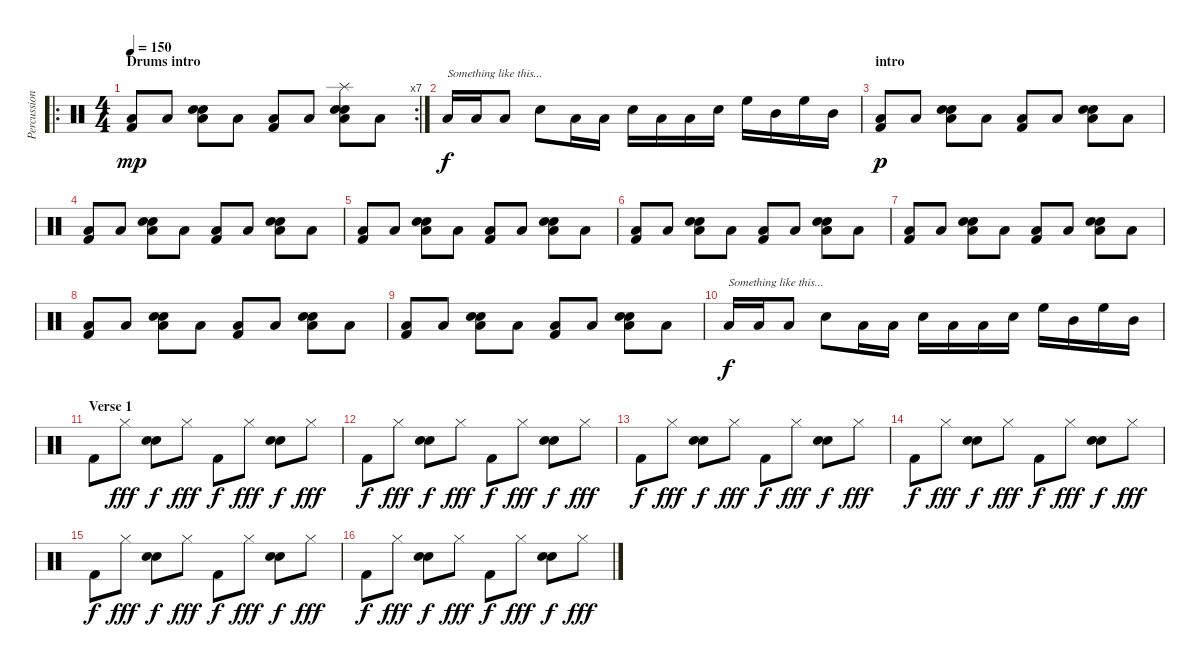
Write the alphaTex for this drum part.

\track ("Percussions" "Percussion") {instrument percussion}
\staff {score}
\articulation defaults
\ro
\rc 7
\ts (4 4)
\section ("" "Drums intro ")
\tempo 150
\clef neutral
\ks c
("Kick (hit) 2" "Low Floor Tom (hit)").8{dy mp} "Low Floor Tom (hit)".8 ("Snare (hit) 2" "Low Floor Tom (hit)" "Electric Snare (hit)").8 "Low Floor Tom (hit)".8 ("Kick (hit) 2" "Low Floor Tom (hit)").8 "Low Floor Tom (hit)".8 ("Snare (hit) 2" "Low Floor Tom (hit)" "Electric Snare (hit)" "Splash (hit)").8 "Low Floor Tom (hit)".8 |
"Low Floor Tom (hit)".16{txt "Something like this..." dy f} "Low Floor Tom (hit)".16 "Low Floor Tom (hit)".8 "Snare (hit) 2".8 "Low Floor Tom (hit)".16 "Low Floor Tom (hit)".16 "Snare (hit) 2".16 "Low Floor Tom (hit)".16 "Low Tom (hit)".16 "Snare (hit) 2".16 "High Floor Tom (hit)".16 "Mid Tom (hit)".16 "High Floor Tom (hit)".16 "Mid Tom (hit)".16 |
\section ("" "intro")
("Kick (hit) 2" "Low Floor Tom (hit)").8{dy p} "Low Floor Tom (hit)".8 ("Snare (hit) 2" "Low Floor Tom (hit)" "Electric Snare (hit)").8 "Low Floor Tom (hit)".8 ("Kick (hit) 2" "Low Floor Tom (hit)").8 "Low Floor Tom (hit)".8 ("Snare (hit) 2" "Low Floor Tom (hit)" "Electric Snare (hit)").8 "Low Floor Tom (hit)".8 |
("Kick (hit) 2" "Low Floor Tom (hit)").8 "Low Floor Tom (hit)".8 ("Snare (hit) 2" "Low Floor Tom (hit)" "Electric Snare (hit)").8 "Low Floor Tom (hit)".8 ("Kick (hit) 2" "Low Floor Tom (hit)").8 "Low Floor Tom (hit)".8 ("Snare (hit) 2" "Low Floor Tom (hit)" "Electric Snare (hit)").8 "Low Floor Tom (hit)".8 |
("Kick (hit) 2" "Low Floor Tom (hit)").8 "Low Floor Tom (hit)".8 ("Snare (hit) 2" "Low Floor Tom (hit)" "Electric Snare (hit)").8 "Low Floor Tom (hit)".8 ("Kick (hit) 2" "Low Floor Tom (hit)").8 "Low Floor Tom (hit)".8 ("Snare (hit) 2" "Low Floor Tom (hit)" "Electric Snare (hit)").8 "Low Floor Tom (hit)".8 |
("Kick (hit) 2" "Low Floor Tom (hit)").8 "Low Floor Tom (hit)".8 ("Snare (hit) 2" "Low Floor Tom (hit)" "Electric Snare (hit)").8 "Low Floor Tom (hit)".8 ("Kick (hit) 2" "Low Floor Tom (hit)").8 "Low Floor Tom (hit)".8 ("Snare (hit) 2" "Low Floor Tom (hit)" "Electric Snare (hit)").8 "Low Floor Tom (hit)".8 |
("Kick (hit) 2" "Low Floor Tom (hit)").8 "Low Floor Tom (hit)".8 ("Snare (hit) 2" "Low Floor Tom (hit)" "Electric Snare (hit)").8 "Low Floor Tom (hit)".8 ("Kick (hit) 2" "Low Floor Tom (hit)").8 "Low Floor Tom (hit)".8 ("Snare (hit) 2" "Low Floor Tom (hit)" "Electric Snare (hit)").8 "Low Floor Tom (hit)".8 |
("Kick (hit) 2" "Low Floor Tom (hit)").8 "Low Floor Tom (hit)".8 ("Snare (hit) 2" "Low Floor Tom (hit)" "Electric Snare (hit)").8 "Low Floor Tom (hit)".8 ("Kick (hit) 2" "Low Floor Tom (hit)").8 "Low Floor Tom (hit)".8 ("Snare (hit) 2" "Low Floor Tom (hit)" "Electric Snare (hit)").8 "Low Floor Tom (hit)".8 |
("Kick (hit) 2" "Low Floor Tom (hit)").8 "Low Floor Tom (hit)".8 ("Snare (hit) 2" "Low Floor Tom (hit)" "Electric Snare (hit)").8 "Low Floor Tom (hit)".8 ("Kick (hit) 2" "Low Floor Tom (hit)").8 "Low Floor Tom (hit)".8 ("Snare (hit) 2" "Low Floor Tom (hit)" "Electric Snare (hit)").8 "Low Floor Tom (hit)".8 |
"Low Floor Tom (hit)".16{txt "Something like this..." dy f} "Low Floor Tom (hit)".16 "Low Floor Tom (hit)".8 "Snare (hit) 2".8 "Low Floor Tom (hit)".16 "Low Floor Tom (hit)".16 "Snare (hit) 2".16 "Low Floor Tom (hit)".16 "Low Tom (hit)".16 "Snare (hit) 2".16 "High Floor Tom (hit)".16 "Mid Tom (hit)".16 "High Floor Tom (hit)".16 "Mid Tom (hit)".16 |
\section ("" "Verse 1")
"Kick (hit) 2".8 "Hi-Hat (closed)".8{dy fff} ("Snare (hit) 2" "Electric Snare (hit)").8{dy f} "Hi-Hat (closed)".8{dy fff} "Kick (hit) 2".8{dy f} "Hi-Hat (closed)".8{dy fff} ("Snare (hit) 2" "Electric Snare (hit)").8{dy f} "Hi-Hat (closed)".8{dy fff} |
"Kick (hit) 2".8{dy f} "Hi-Hat (closed)".8{dy fff} ("Snare (hit) 2" "Electric Snare (hit)").8{dy f} "Hi-Hat (closed)".8{dy fff} "Kick (hit) 2".8{dy f} "Hi-Hat (closed)".8{dy fff} ("Snare (hit) 2" "Electric Snare (hit)").8{dy f} "Hi-Hat (closed)".8{dy fff} |
"Kick (hit) 2".8{dy f} "Hi-Hat (closed)".8{dy fff} ("Snare (hit) 2" "Electric Snare (hit)").8{dy f} "Hi-Hat (closed)".8{dy fff} "Kick (hit) 2".8{dy f} "Hi-Hat (closed)".8{dy fff} ("Snare (hit) 2" "Electric Snare (hit)").8{dy f} "Hi-Hat (closed)".8{dy fff} |
"Kick (hit) 2".8{dy f} "Hi-Hat (closed)".8{dy fff} ("Snare (hit) 2" "Electric Snare (hit)").8{dy f} "Hi-Hat (closed)".8{dy fff} "Kick (hit) 2".8{dy f} "Hi-Hat (closed)".8{dy fff} ("Snare (hit) 2" "Electric Snare (hit)").8{dy f} "Hi-Hat (closed)".8{dy fff} |
"Kick (hit) 2".8{dy f} "Hi-Hat (closed)".8{dy fff} ("Snare (hit) 2" "Electric Snare (hit)").8{dy f} "Hi-Hat (closed)".8{dy fff} "Kick (hit) 2".8{dy f} "Hi-Hat (closed)".8{dy fff} ("Snare (hit) 2" "Electric Snare (hit)").8{dy f} "Hi-Hat (closed)".8{dy fff} |
"Kick (hit) 2".8{dy f} "Hi-Hat (closed)".8{dy fff} ("Snare (hit) 2" "Electric Snare (hit)").8{dy f} "Hi-Hat (closed)".8{dy fff} "Kick (hit) 2".8{dy f} "Hi-Hat (closed)".8{dy fff} ("Snare (hit) 2" "Electric Snare (hit)").8{dy f} "Hi-Hat (closed)".8{dy fff}
